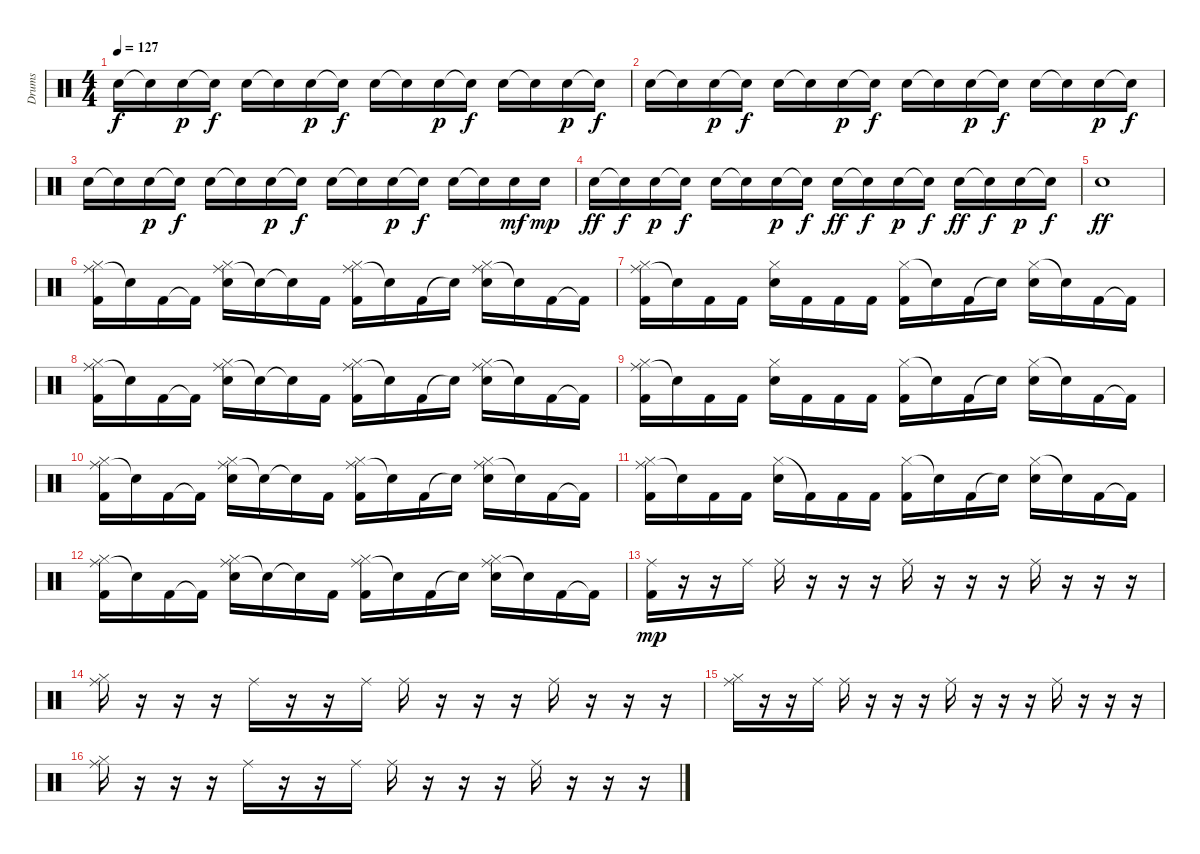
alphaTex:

\track ("Drums" "Drums") {instrument percussion}
\staff {score}
\articulation defaults
\ts (4 4)
\tempo 127
\clef neutral
\ks c "Electric Snare (hit)".16{dy f} "Snare (hit)"{t}.16 "Electric Snare (hit)".16{dy p} "Electric Snare (hit)"{t}.16{dy f} "Electric Snare (hit)".16 "Snare (hit)"{t}.16 "Electric Snare (hit)".16{dy p} "Snare (hit)"{t}.16{dy f} "Electric Snare (hit)".16 "Snare (hit)"{t}.16 "Electric Snare (hit)".16{dy p} "Snare (hit)"{t}.16{dy f} "Electric Snare (hit)".16 "Snare (hit)"{t}.16 "Electric Snare (hit)".16{dy p} "Electric Snare (hit)"{t}.16{dy f}
|
"Electric Snare (hit)".16 "Snare (hit)"{t}.16 "Electric Snare (hit)".16{dy p} "Electric Snare (hit)"{t}.16{dy f} "Electric Snare (hit)".16 "Snare (hit)"{t}.16 "Electric Snare (hit)".16{dy p} "Snare (hit)"{t}.16{dy f} "Electric Snare (hit)".16 "Snare (hit)"{t}.16 "Electric Snare (hit)".16{dy p} "Snare (hit)"{t}.16{dy f} "Electric Snare (hit)".16 "Snare (hit)"{t}.16 "Electric Snare (hit)".16{dy p} "Electric Snare (hit)"{t}.16{dy f} |
"Electric Snare (hit)".16 "Snare (hit)"{t}.16 "Electric Snare (hit)".16{dy p} "Electric Snare (hit)"{t}.16{dy f} "Electric Snare (hit)".16 "Snare (hit)"{t}.16 "Electric Snare (hit)".16{dy p} "Snare (hit)"{t}.16{dy f} "Electric Snare (hit)".16 "Snare (hit)"{t}.16 "Electric Snare (hit)".16{dy p} "Snare (hit)"{t}.16{dy f} "Electric Snare (hit)".16 "Snare (hit)"{t}.16 "Electric Snare (hit)".16{dy mf} "Electric Snare (hit)".16{dy mp} |
"Electric Snare (hit)".16{dy ff} "Snare (hit)"{t}.16{dy f} "Electric Snare (hit)".16{dy p} "Electric Snare (hit)"{t}.16{dy f} "Electric Snare (hit)".16 "Snare (hit)"{t}.16 "Electric Snare (hit)".16{dy p} "Snare (hit)"{t}.16{dy f} "Electric Snare (hit)".16{dy ff} "Snare (hit)"{t}.16{dy f} "Electric Snare (hit)".16{dy p} "Snare (hit)"{t}.16{dy f} "Electric Snare (hit)".16{dy ff} "Snare (hit)"{t}.16{dy f} "Electric Snare (hit)".16{dy p} "Electric Snare (hit)"{t}.16{dy f} |
"Electric Snare (hit)".1{dy ff} |
("Ride (middle)" "Hi-Hat (closed)" "Kick (hit) 2").16 "Snare (hit)"{t}.16 "Kick (hit) 2".16 "Kick (hit) 2"{t}.16 ("Ride (middle)" "Hi-Hat (closed)" "Electric Snare (hit)").16 "Snare (hit)"{t}.16 "Snare (hit)"{t}.16 "Kick (hit) 2".16 ("Ride (middle)" "Hi-Hat (closed)" "Kick (hit) 2").16 "Snare (hit)"{t}.16 "Kick (hit) 2".16 "Snare (hit)"{t}.16 ("Ride (middle)" "Hi-Hat (closed)" "Electric Snare (hit)").16 "Snare (hit)"{t}.16 "Kick (hit) 2".16 "Kick (hit) 2"{t}.16 |
("Ride (middle)" "Hi-Hat (closed)" "Kick (hit) 2").16 "Snare (hit)"{t}.16 "Kick (hit) 2".16 "Kick (hit) 2".16 ("Hi-Hat (closed)" "Electric Snare (hit)").16 "Kick (hit) 2".16 "Kick (hit) 2".16 "Kick (hit) 2".16 ("Hi-Hat (closed)" "Kick (hit) 2").16 "Snare (hit)"{t}.16 "Kick (hit) 2".16 "Snare (hit)"{t}.16 ("Hi-Hat (closed)" "Electric Snare (hit)").16 "Snare (hit)"{t}.16 "Kick (hit) 2".16 "Kick (hit) 2"{t}.16 |
("Ride (middle)" "Hi-Hat (closed)" "Kick (hit) 2").16 "Snare (hit)"{t}.16 "Kick (hit) 2".16 "Kick (hit) 2"{t}.16 ("Ride (middle)" "Hi-Hat (closed)" "Electric Snare (hit)").16 "Snare (hit)"{t}.16 "Snare (hit)"{t}.16 "Kick (hit) 2".16 ("Ride (middle)" "Hi-Hat (closed)" "Kick (hit) 2").16 "Snare (hit)"{t}.16 "Kick (hit) 2".16 "Snare (hit)"{t}.16 ("Ride (middle)" "Hi-Hat (closed)" "Electric Snare (hit)").16 "Snare (hit)"{t}.16 "Kick (hit) 2".16 "Kick (hit) 2"{t}.16 |
("Ride (middle)" "Hi-Hat (closed)" "Kick (hit) 2").16 "Snare (hit)"{t}.16 "Kick (hit) 2".16 "Kick (hit) 2".16 ("Hi-Hat (closed)" "Electric Snare (hit)").16 "Kick (hit) 2".16 "Kick (hit) 2".16 "Kick (hit) 2".16 ("Hi-Hat (closed)" "Kick (hit) 2").16 "Snare (hit)"{t}.16 "Kick (hit) 2".16 "Snare (hit)"{t}.16 ("Hi-Hat (closed)" "Electric Snare (hit)").16 "Snare (hit)"{t}.16 "Kick (hit) 2".16 "Kick (hit) 2"{t}.16 |
("Ride (middle)" "Hi-Hat (closed)" "Kick (hit) 2").16 "Snare (hit)"{t}.16 "Kick (hit) 2".16 "Kick (hit) 2"{t}.16 ("Ride (middle)" "Hi-Hat (closed)" "Electric Snare (hit)").16 "Snare (hit)"{t}.16 "Snare (hit)"{t}.16 "Kick (hit) 2".16 ("Ride (middle)" "Hi-Hat (closed)" "Kick (hit) 2").16 "Snare (hit)"{t}.16 "Kick (hit) 2".16 "Snare (hit)"{t}.16 ("Ride (middle)" "Hi-Hat (closed)" "Electric Snare (hit)").16 "Snare (hit)"{t}.16 "Kick (hit) 2".16 "Kick (hit) 2"{t}.16 |
("Ride (middle)" "Hi-Hat (closed)" "Kick (hit) 2").16 "Snare (hit)"{t}.16 "Kick (hit) 2".16 "Kick (hit) 2".16 ("Hi-Hat (closed)" "Electric Snare (hit)").16 "Kick (hit) 2"{t}.16 "Kick (hit) 2".16 "Kick (hit) 2".16 ("Hi-Hat (closed)" "Kick (hit) 2").16 "Snare (hit)"{t}.16 "Kick (hit) 2".16 "Snare (hit)"{t}.16 ("Hi-Hat (closed)" "Electric Snare (hit)").16 "Snare (hit)"{t}.16 "Kick (hit) 2".16 "Kick (hit) 2"{t}.16 |
("Ride (middle)" "Hi-Hat (closed)" "Kick (hit) 2").16 "Snare (hit)"{t}.16 "Kick (hit) 2".16 "Kick (hit) 2"{t}.16 ("Ride (middle)" "Hi-Hat (closed)" "Electric Snare (hit)").16 "Snare (hit)"{t}.16 "Snare (hit)"{t}.16 "Kick (hit) 2".16 ("Ride (middle)" "Hi-Hat (closed)" "Kick (hit) 2").16 "Snare (hit)"{t}.16 "Kick (hit) 2".16 "Snare (hit)"{t}.16 ("Ride (middle)" "Hi-Hat (closed)" "Electric Snare (hit)").16 "Snare (hit)"{t}.16 "Kick (hit) 2".16 "Kick (hit) 2"{t}.16 |
("Ride (middle)" "Kick (hit) 2").16{dy mp} r.16 r.16 "Ride (middle)".16 "Ride (middle)".16 r.16 r.16 r.16 "Ride (middle)".16 r.16 r.16 r.16 "Ride (middle)".16 r.16 r.16 r.16 |
("Ride (middle)" "Hi-Hat (closed)").16 r.16 r.16 r.16 "Ride (middle)".16 r.16 r.16 "Ride (middle)".16 "Ride (middle)".16 r.16 r.16 r.16 "Ride (middle)".16 r.16 r.16 r.16 |
("Ride (middle)" "Hi-Hat (closed)").16 r.16 r.16 "Ride (middle)".16 "Ride (middle)".16 r.16 r.16 r.16 "Ride (middle)".16 r.16 r.16 r.16 "Ride (middle)".16 r.16 r.16 r.16 |
("Ride (middle)" "Hi-Hat (closed)").16 r.16 r.16 r.16 "Ride (middle)".16 r.16 r.16 "Ride (middle)".16 "Ride (middle)".16 r.16 r.16 r.16 "Ride (middle)".16 r.16 r.16 r.16
